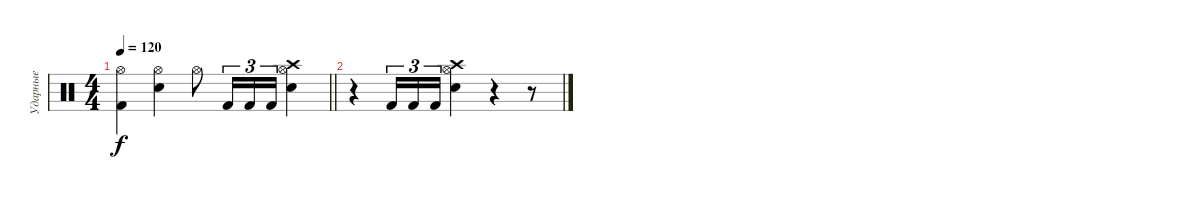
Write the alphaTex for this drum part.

\track ("Ударные" "Ударные") {instrument percussion}
\staff {score}
\articulation defaults
\ts (4 4)
\tempo 120
\clef neutral
\barLineRight lightlight
\ks c
("Kick (hit) 2" "Hi-Hat (open)").4{dy f} ("Snare (hit) 2" "Hi-Hat (open)").4 "Hi-Hat (open)".8 "Kick (hit) 2".16{tu (3 2)} "Kick (hit) 2".16{tu (3 2)} "Kick (hit) 2".16{tu (3 2)} ("Snare (hit) 2" "Hi-Hat (open)" "Crash high (hit)").4 |
r.4 "Kick (hit) 2".16{tu (3 2)} "Kick (hit) 2".16{tu (3 2)} "Kick (hit) 2".16{tu (3 2)} ("Snare (hit) 2" "Hi-Hat (open)" "Crash high (hit)").4 r.4 r.8
